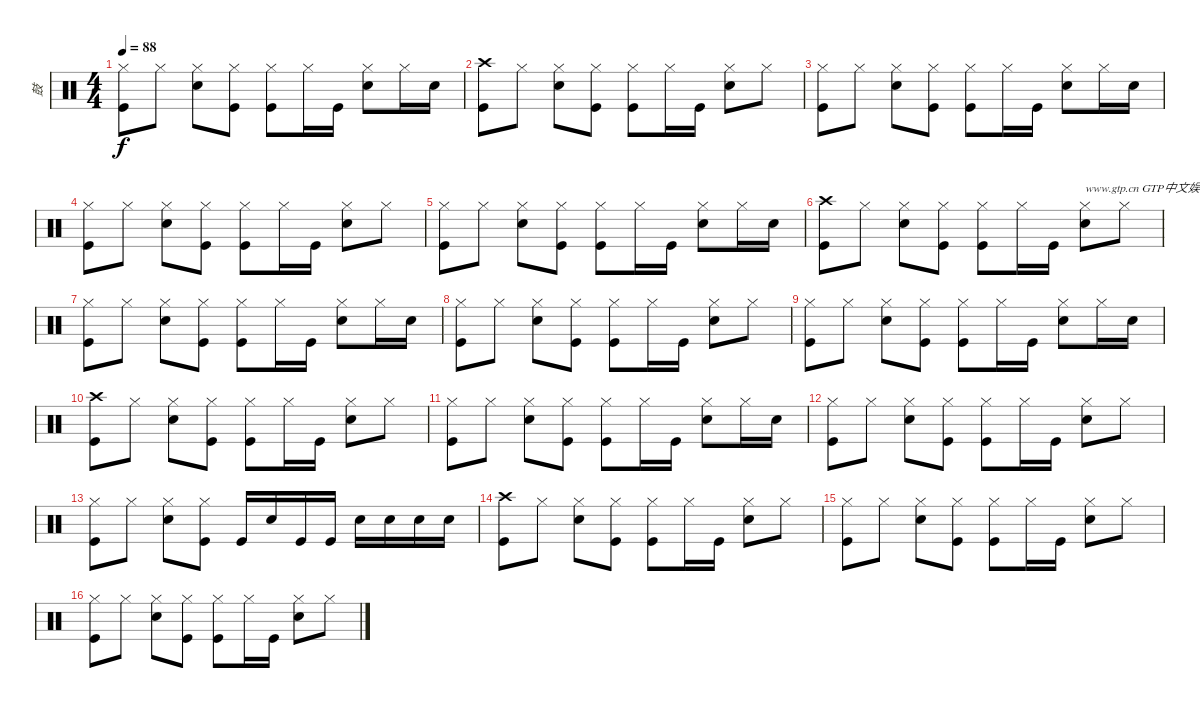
\track ("鼓" "鼓") {instrument percussion}
\staff {score}
\articulation defaults
\ts (4 4)
\tempo 88
\clef neutral
\ks c
("Hi-Hat (closed)" "Kick (hit)").8{dy f} "Hi-Hat (closed)".8 ("Hi-Hat (closed)" "Snare (hit) 2").8 ("Hi-Hat (closed)" "Kick (hit)").8 ("Hi-Hat (closed)" "Kick (hit)").8 "Hi-Hat (closed)".16 "Kick (hit)".16 ("Hi-Hat (closed)" "Snare (hit) 2").8 "Hi-Hat (closed)".16 "Snare (hit) 2".16 |
("Crash high (hit)" "Kick (hit)").8 "Hi-Hat (closed)".8 ("Hi-Hat (closed)" "Snare (hit) 2").8 ("Hi-Hat (closed)" "Kick (hit)").8 ("Hi-Hat (closed)" "Kick (hit)").8 "Hi-Hat (closed)".16 "Kick (hit)".16 ("Hi-Hat (closed)" "Snare (hit) 2").8 "Hi-Hat (closed)".8 |
("Hi-Hat (closed)" "Kick (hit)").8 "Hi-Hat (closed)".8 ("Hi-Hat (closed)" "Snare (hit) 2").8 ("Hi-Hat (closed)" "Kick (hit)").8 ("Hi-Hat (closed)" "Kick (hit)").8 "Hi-Hat (closed)".16 "Kick (hit)".16 ("Hi-Hat (closed)" "Snare (hit) 2").8 "Hi-Hat (closed)".16 "Snare (hit) 2".16 |
("Hi-Hat (closed)" "Kick (hit)").8 "Hi-Hat (closed)".8 ("Hi-Hat (closed)" "Snare (hit) 2").8 ("Hi-Hat (closed)" "Kick (hit)").8 ("Hi-Hat (closed)" "Kick (hit)").8 "Hi-Hat (closed)".16 "Kick (hit)".16 ("Hi-Hat (closed)" "Snare (hit) 2").8 "Hi-Hat (closed)".8 |
("Hi-Hat (closed)" "Kick (hit)").8 "Hi-Hat (closed)".8 ("Hi-Hat (closed)" "Snare (hit) 2").8 ("Hi-Hat (closed)" "Kick (hit)").8 ("Hi-Hat (closed)" "Kick (hit)").8 "Hi-Hat (closed)".16 "Kick (hit)".16 ("Hi-Hat (closed)" "Snare (hit) 2").8 "Hi-Hat (closed)".16 "Snare (hit) 2".16 |
("Crash high (hit)" "Kick (hit)").8 "Hi-Hat (closed)".8 ("Hi-Hat (closed)" "Snare (hit) 2").8 ("Hi-Hat (closed)" "Kick (hit)").8 ("Hi-Hat (closed)" "Kick (hit)").8 "Hi-Hat (closed)".16 "Kick (hit)".16 ("Hi-Hat (closed)" "Snare (hit) 2").8{txt "www.gtp.cn GTP中文娱乐网为您提供优秀的谱子"} "Hi-Hat (closed)".8 |
("Hi-Hat (closed)" "Kick (hit)").8 "Hi-Hat (closed)".8 ("Hi-Hat (closed)" "Snare (hit) 2").8 ("Hi-Hat (closed)" "Kick (hit)").8 ("Hi-Hat (closed)" "Kick (hit)").8 "Hi-Hat (closed)".16 "Kick (hit)".16 ("Hi-Hat (closed)" "Snare (hit) 2").8 "Hi-Hat (closed)".16 "Snare (hit) 2".16 |
("Hi-Hat (closed)" "Kick (hit)").8 "Hi-Hat (closed)".8 ("Hi-Hat (closed)" "Snare (hit) 2").8 ("Hi-Hat (closed)" "Kick (hit)").8 ("Hi-Hat (closed)" "Kick (hit)").8 "Hi-Hat (closed)".16 "Kick (hit)".16 ("Hi-Hat (closed)" "Snare (hit) 2").8 "Hi-Hat (closed)".8 |
("Hi-Hat (closed)" "Kick (hit)").8 "Hi-Hat (closed)".8 ("Hi-Hat (closed)" "Snare (hit) 2").8 ("Hi-Hat (closed)" "Kick (hit)").8 ("Hi-Hat (closed)" "Kick (hit)").8 "Hi-Hat (closed)".16 "Kick (hit)".16 ("Hi-Hat (closed)" "Snare (hit) 2").8 "Hi-Hat (closed)".16 "Snare (hit) 2".16 |
("Crash high (hit)" "Kick (hit)").8 "Hi-Hat (closed)".8 ("Hi-Hat (closed)" "Snare (hit) 2").8 ("Hi-Hat (closed)" "Kick (hit)").8 ("Hi-Hat (closed)" "Kick (hit)").8 "Hi-Hat (closed)".16 "Kick (hit)".16 ("Hi-Hat (closed)" "Snare (hit) 2").8 "Hi-Hat (closed)".8 |
("Hi-Hat (closed)" "Kick (hit)").8 "Hi-Hat (closed)".8 ("Hi-Hat (closed)" "Snare (hit) 2").8 ("Hi-Hat (closed)" "Kick (hit)").8 ("Hi-Hat (closed)" "Kick (hit)").8 "Hi-Hat (closed)".16 "Kick (hit)".16 ("Hi-Hat (closed)" "Snare (hit) 2").8 "Hi-Hat (closed)".16 "Snare (hit) 2".16 |
("Hi-Hat (closed)" "Kick (hit)").8 "Hi-Hat (closed)".8 ("Hi-Hat (closed)" "Snare (hit) 2").8 ("Hi-Hat (closed)" "Kick (hit)").8 ("Hi-Hat (closed)" "Kick (hit)").8 "Hi-Hat (closed)".16 "Kick (hit)".16 ("Hi-Hat (closed)" "Snare (hit) 2").8 "Hi-Hat (closed)".8 |
("Hi-Hat (closed)" "Kick (hit)").8 "Hi-Hat (closed)".8 ("Hi-Hat (closed)" "Snare (hit) 2").8 ("Hi-Hat (closed)" "Kick (hit)").8 "Kick (hit)".16 "Snare (hit) 2".16 "Kick (hit)".16 "Kick (hit)".16 "Snare (hit) 2".16 "Snare (hit) 2".16 "Snare (hit) 2".16 "Snare (hit) 2".16 |
("Crash high (hit)" "Kick (hit)").8 "Hi-Hat (closed)".8 ("Hi-Hat (closed)" "Snare (hit) 2").8 ("Hi-Hat (closed)" "Kick (hit)").8 ("Hi-Hat (closed)" "Kick (hit)").8 "Hi-Hat (closed)".16 "Kick (hit)".16 ("Hi-Hat (closed)" "Snare (hit) 2").8 "Hi-Hat (closed)".8 |
("Hi-Hat (closed)" "Kick (hit)").8 "Hi-Hat (closed)".8 ("Hi-Hat (closed)" "Snare (hit) 2").8 ("Hi-Hat (closed)" "Kick (hit)").8 ("Hi-Hat (closed)" "Kick (hit)").8 "Hi-Hat (closed)".16 "Kick (hit)".16 ("Hi-Hat (closed)" "Snare (hit) 2").8 "Hi-Hat (closed)".8 |
("Hi-Hat (closed)" "Kick (hit)").8 "Hi-Hat (closed)".8 ("Hi-Hat (closed)" "Snare (hit) 2").8 ("Hi-Hat (closed)" "Kick (hit)").8 ("Hi-Hat (closed)" "Kick (hit)").8 "Hi-Hat (closed)".16 "Kick (hit)".16 ("Hi-Hat (closed)" "Snare (hit) 2").8 "Hi-Hat (closed)".8
